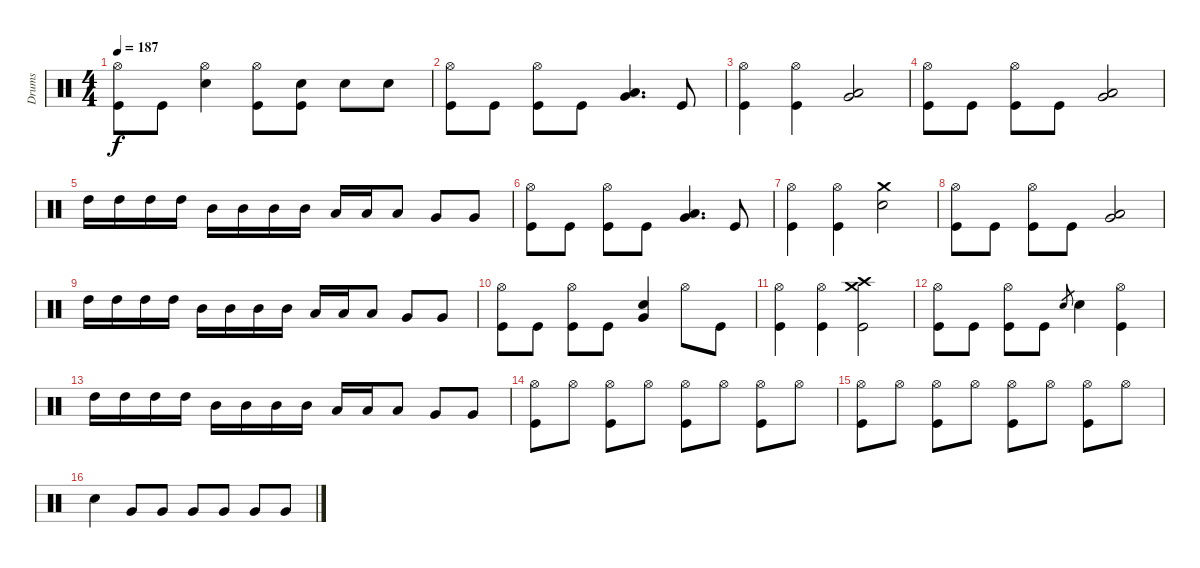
\track ("Drums" "Drums") {instrument percussion}
\staff {score}
\articulation defaults
\ts (4 4)
\tempo 187
\clef neutral
\ks c
("Hi-Hat (open)" "Kick (hit)").8{dy f} "Kick (hit)".8 ("Hi-Hat (open)" "Snare (hit) 2").4 ("Hi-Hat (open)" "Kick (hit)").8 ("Snare (hit) 2" "Kick (hit)").8 "Snare (hit) 2".8 "Snare (hit) 2".8 |
("Hi-Hat (open)" "Kick (hit)").8 "Kick (hit)".8 ("Hi-Hat (open)" "Kick (hit)").8 "Kick (hit)".8 ("Very Low Tom (hit)" "Low Floor Tom (hit)").4{d} "Kick (hit)".8 |
("Hi-Hat (open)" "Kick (hit)").4 ("Hi-Hat (open)" "Kick (hit)").4 ("Very Low Tom (hit)" "Low Floor Tom (hit)").2 |
("Hi-Hat (open)" "Kick (hit)").8 "Kick (hit)".8 ("Hi-Hat (open)" "Kick (hit)").8 "Kick (hit)".8 ("Very Low Tom (hit)" "Low Floor Tom (hit)").2 |
"High Tom (hit)".16 "High Tom (hit)".16 "High Tom (hit)".16 "High Tom (hit)".16 "Mid Tom (hit)".16 "Mid Tom (hit)".16 "Mid Tom (hit)".16 "Mid Tom (hit)".16 "Low Tom (hit)".16 "Low Tom (hit)".16 "Low Tom (hit)".8 "Very Low Tom (hit)".8 "Very Low Tom (hit)".8 |
("Hi-Hat (open)" "Kick (hit)").8 "Kick (hit)".8 ("Hi-Hat (open)" "Kick (hit)").8 "Kick (hit)".8 ("Very Low Tom (hit)" "Low Floor Tom (hit)").4{d} "Kick (hit)".8 |
("Hi-Hat (open)" "Kick (hit)").4 ("Hi-Hat (open)" "Kick (hit)").4 ("Crash medium (hit)" "Snare (hit) 2").2 |
("Hi-Hat (open)" "Kick (hit)").8 "Kick (hit)".8 ("Hi-Hat (open)" "Kick (hit)").8 "Kick (hit)".8 ("Very Low Tom (hit)" "Low Floor Tom (hit)").2 |
"High Tom (hit)".16 "High Tom (hit)".16 "High Tom (hit)".16 "High Tom (hit)".16 "Mid Tom (hit)".16 "Mid Tom (hit)".16 "Mid Tom (hit)".16 "Mid Tom (hit)".16 "Low Tom (hit)".16 "Low Tom (hit)".16 "Low Tom (hit)".8 "Very Low Tom (hit)".8 "Very Low Tom (hit)".8 |
("Hi-Hat (open)" "Kick (hit)").8 "Kick (hit)".8 ("Hi-Hat (open)" "Kick (hit)").8 "Kick (hit)".8 ("Snare (hit) 2" "Very Low Tom (hit)").4 "Hi-Hat (open)".8 "Kick (hit)".8 |
("Hi-Hat (open)" "Kick (hit)").4 ("Hi-Hat (open)" "Kick (hit)").4 ("Crash high (hit)" "Crash medium (hit)" "Kick (hit)").2 |
("Hi-Hat (open)" "Kick (hit)").8 "Kick (hit)".8 ("Hi-Hat (open)" "Kick (hit)").8 "Kick (hit)".8 "Snare (hit) 2".8{gr} "Snare (hit) 2".4 ("Hi-Hat (open)" "Kick (hit)").4 |
"High Tom (hit)".16 "High Tom (hit)".16 "High Tom (hit)".16 "High Tom (hit)".16 "Mid Tom (hit)".16 "Mid Tom (hit)".16 "Mid Tom (hit)".16 "Mid Tom (hit)".16 "Low Tom (hit)".16 "Low Tom (hit)".16 "Low Tom (hit)".8 "Very Low Tom (hit)".8 "Very Low Tom (hit)".8 |
("Hi-Hat (open)" "Kick (hit)").8 "Hi-Hat (open)".8 ("Hi-Hat (open)" "Kick (hit)").8 "Hi-Hat (open)".8 ("Hi-Hat (open)" "Kick (hit)").8 "Hi-Hat (open)".8 ("Hi-Hat (open)" "Kick (hit)").8 "Hi-Hat (open)".8 |
("Hi-Hat (open)" "Kick (hit)").8 "Hi-Hat (open)".8 ("Hi-Hat (open)" "Kick (hit)").8 "Hi-Hat (open)".8 ("Hi-Hat (open)" "Kick (hit)").8 "Hi-Hat (open)".8 ("Hi-Hat (open)" "Kick (hit)").8 "Hi-Hat (open)".8 |
"Snare (hit) 2".4{volume 8} "Very Low Tom (hit)".8{volume 11} "Very Low Tom (hit)".8 "Very Low Tom (hit)".8 "Very Low Tom (hit)".8 "Very Low Tom (hit)".8 "Very Low Tom (hit)".8
